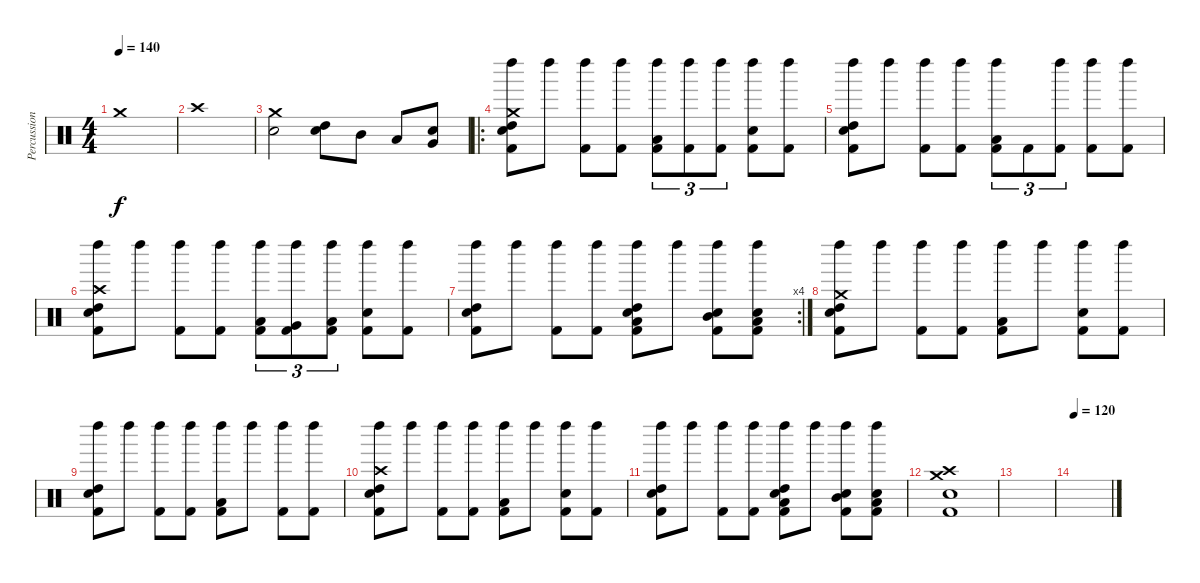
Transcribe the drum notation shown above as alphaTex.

\track ("Percussion" "Percussion") {instrument percussion}
\staff {score}
\articulation defaults
\ts (4 4)
\tempo 140
\clef neutral
\ks c "Crash medium (hit)".1{dy f}
|
"Crash high (hit)".1 |
("Crash medium (hit)" "Snare (hit) 2").2 ("Snare (hit) 2" "High Tom (hit)").8 "Mid Tom (hit)".8 "Low Tom (hit)".8 ("Snare (hit) 2" "Very Low Tom (hit)").8 |
\ro
("Kick (hit) 2" "Snare (hit) 2" "High Tom (hit)" "Crash medium (hit)" "Left Maraca (hit)").8 "Left Maraca (hit)".8 ("Kick (hit) 2" "Left Maraca (hit)").8 ("Kick (hit) 2" "Left Maraca (hit)").8 ("Kick (hit) 2" "Low Tom (hit)" "Left Maraca (hit)").8{tu (3 2)} ("Kick (hit) 2" "Left Maraca (hit)").8{tu (3 2)} ("Kick (hit) 2" "Left Maraca (hit)").8{tu (3 2)} ("Kick (hit) 2" "Snare (hit) 2" "Left Maraca (hit)").8 ("Kick (hit) 2" "Left Maraca (hit)").8 |
("Kick (hit) 2" "Snare (hit) 2" "High Tom (hit)" "Left Maraca (hit)").8 "Left Maraca (hit)".8 ("Kick (hit) 2" "Left Maraca (hit)").8 ("Kick (hit) 2" "Left Maraca (hit)").8 ("Kick (hit) 2" "Low Tom (hit)" "Left Maraca (hit)").8{tu (3 2)} "Kick (hit) 2".8{tu (3 2)} ("Kick (hit) 2" "Left Maraca (hit)").8{tu (3 2)} ("Kick (hit) 2" "Left Maraca (hit)").8 ("Kick (hit) 2" "Left Maraca (hit)").8 |
("Kick (hit) 2" "Snare (hit) 2" "High Tom (hit)" "Crash high (hit)" "Left Maraca (hit)").8 "Left Maraca (hit)".8 ("Kick (hit) 2" "Left Maraca (hit)").8 ("Kick (hit) 2" "Left Maraca (hit)").8 ("Kick (hit) 2" "Low Tom (hit)" "Left Maraca (hit)").8{tu (3 2)} ("Kick (hit) 2" "Very Low Tom (hit)" "Left Maraca (hit)").8{tu (3 2)} ("Kick (hit) 2" "Low Floor Tom (hit)" "Left Maraca (hit)").8{tu (3 2)} ("Kick (hit) 2" "Snare (hit) 2" "Left Maraca (hit)").8 ("Kick (hit) 2" "Left Maraca (hit)").8 |
\rc 4
("Kick (hit) 2" "Snare (hit) 2" "High Tom (hit)" "Left Maraca (hit)").8 "Left Maraca (hit)".8 ("Kick (hit) 2" "Left Maraca (hit)").8 ("Kick (hit) 2" "Left Maraca (hit)").8 ("Kick (hit) 2" "High Tom (hit)" "Low Tom (hit)" "Snare (hit) 2" "Left Maraca (hit)").8 "Left Maraca (hit)".8 ("Kick (hit) 2" "Mid Tom (hit)" "Snare (hit) 2" "Left Maraca (hit)").8 ("Kick (hit) 2" "Low Tom (hit)" "Snare (hit) 2" "Left Maraca (hit)").8 |
("Kick (hit) 2" "Snare (hit) 2" "High Tom (hit)" "Crash medium (hit)" "Left Maraca (hit)").8 "Left Maraca (hit)".8 ("Kick (hit) 2" "Left Maraca (hit)").8 ("Kick (hit) 2" "Left Maraca (hit)").8 ("Kick (hit) 2" "Low Tom (hit)" "Left Maraca (hit)").8 "Left Maraca (hit)".8 ("Kick (hit) 2" "Snare (hit) 2" "Left Maraca (hit)").8 ("Kick (hit) 2" "Left Maraca (hit)").8 |
("Kick (hit) 2" "Snare (hit) 2" "High Tom (hit)" "Left Maraca (hit)").8 "Left Maraca (hit)".8 ("Kick (hit) 2" "Left Maraca (hit)").8 ("Kick (hit) 2" "Left Maraca (hit)").8 ("Kick (hit) 2" "Low Tom (hit)" "Left Maraca (hit)").8 "Left Maraca (hit)".8 ("Kick (hit) 2" "Left Maraca (hit)").8 ("Kick (hit) 2" "Left Maraca (hit)").8 |
("Kick (hit) 2" "Snare (hit) 2" "High Tom (hit)" "Crash high (hit)" "Left Maraca (hit)").8 "Left Maraca (hit)".8 ("Kick (hit) 2" "Left Maraca (hit)").8 ("Kick (hit) 2" "Left Maraca (hit)").8 ("Kick (hit) 2" "Low Tom (hit)" "Left Maraca (hit)").8 "Left Maraca (hit)".8 ("Kick (hit) 2" "Snare (hit) 2" "Left Maraca (hit)").8 ("Kick (hit) 2" "Left Maraca (hit)").8 |
("Kick (hit) 2" "Snare (hit) 2" "High Tom (hit)" "Left Maraca (hit)").8 "Left Maraca (hit)".8 ("Kick (hit) 2" "Left Maraca (hit)").8 ("Kick (hit) 2" "Left Maraca (hit)").8 ("Kick (hit) 2" "High Tom (hit)" "Low Tom (hit)" "Snare (hit) 2" "Left Maraca (hit)").8 "Left Maraca (hit)".8 ("Kick (hit) 2" "Mid Tom (hit)" "Snare (hit) 2" "Left Maraca (hit)").8 ("Kick (hit) 2" "Low Tom (hit)" "Snare (hit) 2" "Left Maraca (hit)").8 |
("Kick (hit) 2" "Snare (hit) 2" "Crash medium (hit)" "Crash high (hit)"{tr (49 64)}).1{volume 5} |
|
\tempo 120
